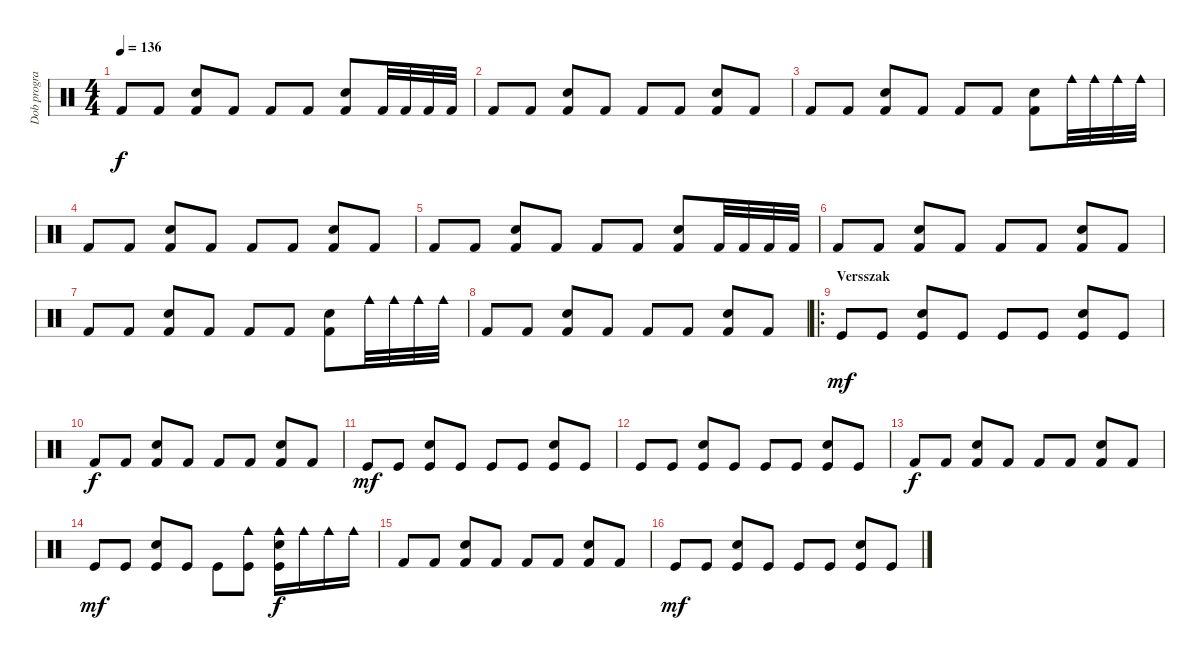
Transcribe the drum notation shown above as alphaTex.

\track ("Dob program" "Dob progra") {instrument percussion}
\staff {score}
\articulation defaults
\ts (4 4)
\tempo 136
\clef neutral
\ks c "Kick (hit) 2".8{dy f} "Kick (hit) 2".8
("Electric Snare (hit)" "Kick (hit) 2").8 "Kick (hit) 2".8 "Kick (hit) 2".8 "Kick (hit) 2".8 ("Electric Snare (hit)" "Kick (hit) 2").8 "Kick (hit) 2".32 "Kick (hit) 2".32 "Kick (hit) 2".32 "Kick (hit) 2".32 |
"Kick (hit) 2".8 "Kick (hit) 2".8 ("Electric Snare (hit)" "Kick (hit) 2").8 "Kick (hit) 2".8 "Kick (hit) 2".8 "Kick (hit) 2".8 ("Electric Snare (hit)" "Kick (hit) 2").8 "Kick (hit) 2".8 |
"Kick (hit) 2".8 "Kick (hit) 2".8 ("Electric Snare (hit)" "Kick (hit) 2").8 "Kick (hit) 2".8 "Kick (hit) 2".8 "Kick (hit) 2".8 ("Electric Snare (hit)" "Kick (hit) 2").8 "Cowbell medium (hit)".32 "Cowbell medium (hit)".32 "Cowbell medium (hit)".32 "Cowbell medium (hit)".32 |
"Kick (hit) 2".8 "Kick (hit) 2".8 ("Electric Snare (hit)" "Kick (hit) 2").8 "Kick (hit) 2".8 "Kick (hit) 2".8 "Kick (hit) 2".8 ("Electric Snare (hit)" "Kick (hit) 2").8 "Kick (hit) 2".8 |
"Kick (hit) 2".8 "Kick (hit) 2".8 ("Electric Snare (hit)" "Kick (hit) 2").8 "Kick (hit) 2".8 "Kick (hit) 2".8 "Kick (hit) 2".8 ("Electric Snare (hit)" "Kick (hit) 2").8 "Kick (hit) 2".32 "Kick (hit) 2".32 "Kick (hit) 2".32 "Kick (hit) 2".32 |
"Kick (hit) 2".8 "Kick (hit) 2".8 ("Electric Snare (hit)" "Kick (hit) 2").8 "Kick (hit) 2".8 "Kick (hit) 2".8 "Kick (hit) 2".8 ("Electric Snare (hit)" "Kick (hit) 2").8 "Kick (hit) 2".8 |
"Kick (hit) 2".8 "Kick (hit) 2".8 ("Electric Snare (hit)" "Kick (hit) 2").8 "Kick (hit) 2".8 "Kick (hit) 2".8 "Kick (hit) 2".8 ("Electric Snare (hit)" "Kick (hit) 2").8 "Cowbell medium (hit)".32 "Cowbell medium (hit)".32 "Cowbell medium (hit)".32 "Cowbell medium (hit)".32 |
"Kick (hit) 2".8 "Kick (hit) 2".8 ("Electric Snare (hit)" "Kick (hit) 2").8 "Kick (hit) 2".8 "Kick (hit) 2".8 "Kick (hit) 2".8 ("Electric Snare (hit)" "Kick (hit) 2").8 "Kick (hit) 2".8 |
\ro
\section ("" "Versszak")
"Kick (hit)".8{dy mf} "Kick (hit)".8 ("Electric Snare (hit)" "Kick (hit)").8 "Kick (hit)".8 "Kick (hit)".8 "Kick (hit)".8 ("Electric Snare (hit)" "Kick (hit)").8 "Kick (hit)".8 |
"Kick (hit) 2".8{dy f} "Kick (hit) 2".8 ("Electric Snare (hit)" "Kick (hit) 2").8 "Kick (hit) 2".8 "Kick (hit) 2".8 "Kick (hit) 2".8 ("Electric Snare (hit)" "Kick (hit) 2").8 "Kick (hit) 2".8 |
"Kick (hit)".8{dy mf} "Kick (hit)".8 ("Electric Snare (hit)" "Kick (hit)").8 "Kick (hit)".8 "Kick (hit)".8 "Kick (hit)".8 ("Electric Snare (hit)" "Kick (hit)").8 "Kick (hit)".8 |
"Kick (hit)".8 "Kick (hit)".8 ("Electric Snare (hit)" "Kick (hit)").8 "Kick (hit)".8 "Kick (hit)".8 "Kick (hit)".8 ("Electric Snare (hit)" "Kick (hit)").8 "Kick (hit)".8 |
"Kick (hit) 2".8{dy f} "Kick (hit) 2".8 ("Electric Snare (hit)" "Kick (hit) 2").8 "Kick (hit) 2".8 "Kick (hit) 2".8 "Kick (hit) 2".8 ("Electric Snare (hit)" "Kick (hit) 2").8 "Kick (hit) 2".8 |
"Kick (hit)".8{dy mf} "Kick (hit)".8 ("Electric Snare (hit)" "Kick (hit)").8 "Kick (hit)".8 "Kick (hit)".8 ("Cowbell medium (hit)" "Kick (hit)").8 ("Cowbell medium (hit)" "Electric Snare (hit)" "Kick (hit)").16{dy f} "Cowbell medium (hit)".16 "Cowbell medium (hit)".16 "Cowbell medium (hit)".16 |
"Kick (hit) 2".8 "Kick (hit) 2".8 ("Electric Snare (hit)" "Kick (hit) 2").8 "Kick (hit) 2".8 "Kick (hit) 2".8 "Kick (hit) 2".8 ("Electric Snare (hit)" "Kick (hit) 2").8 "Kick (hit) 2".8 |
"Kick (hit)".8{dy mf} "Kick (hit)".8 ("Electric Snare (hit)" "Kick (hit)").8 "Kick (hit)".8 "Kick (hit)".8 "Kick (hit)".8 ("Electric Snare (hit)" "Kick (hit)").8 "Kick (hit)".8
